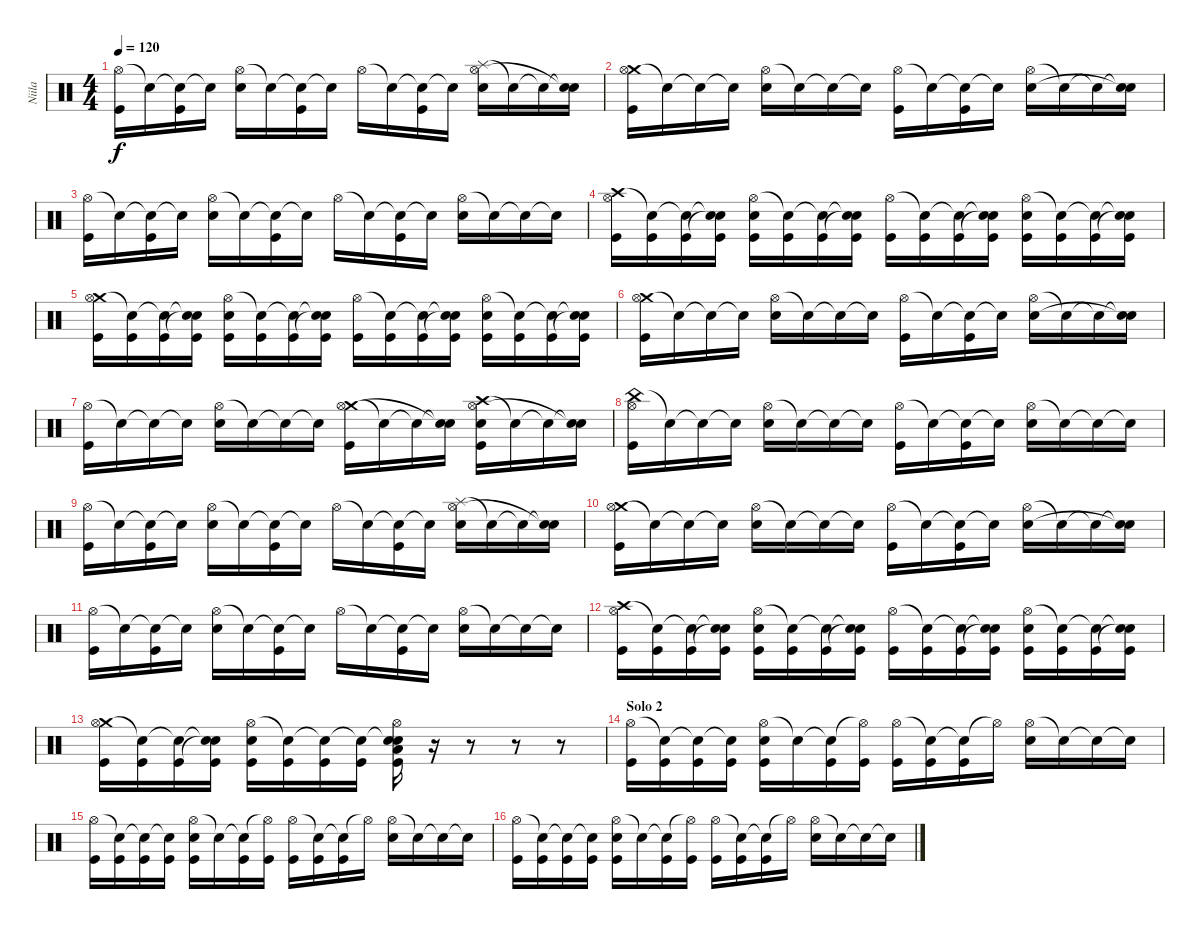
\track ("Niila" "Niila") {instrument percussion}
\staff {score}
\articulation defaults
\ts (4 4)
\tempo 120
\clef neutral
\ks c
("Hi-Hat (open)" "Kick (hit)").16{dy f} "Snare (hit)"{t}.16 ("Snare (hit)"{t} "Kick (hit)").16 "Snare (hit)"{t}.16 ("Hi-Hat (open)" "Snare (hit) 2").16 "Snare (hit)"{t}.16 ("Snare (hit)"{t} "Kick (hit)").16 "Snare (hit)"{t}.16 "Hi-Hat (open)".16 "Snare (hit)"{t}.16 ("Snare (hit)"{t} "Kick (hit)").16 "Snare (hit)"{t}.16 ("Splash (hit)" "Hi-Hat (open)" "Snare (hit) 2").16 "Snare (hit)"{t}.16 "Snare (hit)"{t}.16 ("Snare (hit)"{t} "Snare (hit)"{t}).16 |
("Crash medium (hit)" "Hi-Hat (open)" "Kick (hit)").16 "Snare (hit)"{t}.16 "Snare (hit)"{t}.16 "Snare (hit)"{t}.16 ("Hi-Hat (open)" "Snare (hit) 2").16 "Snare (hit)"{t}.16 "Snare (hit)"{t}.16 "Snare (hit)"{t}.16 ("Hi-Hat (open)" "Kick (hit)").16 "Snare (hit)"{t}.16 ("Snare (hit)"{t} "Kick (hit)").16 "Snare (hit)"{t}.16 ("Hi-Hat (open)" "Snare (hit) 2").16 "Snare (hit)"{t}.16 "Snare (hit)"{t}.16 ("Snare (hit)"{t} "Snare (hit)"{t}).16 |
("Hi-Hat (open)" "Kick (hit)").16 "Snare (hit)"{t}.16 ("Snare (hit)"{t} "Kick (hit)").16 "Snare (hit)"{t}.16 ("Hi-Hat (open)" "Snare (hit) 2").16 "Snare (hit)"{t}.16 ("Snare (hit)"{t} "Kick (hit)").16 "Snare (hit)"{t}.16 "Hi-Hat (open)".16 "Snare (hit)"{t}.16 ("Snare (hit)"{t} "Kick (hit)").16 "Snare (hit)"{t}.16 ("Hi-Hat (open)" "Snare (hit) 2").16 "Snare (hit)"{t}.16 "Snare (hit)"{t}.16 "Snare (hit)"{t}.16 |
("Crash high (hit)" "Hi-Hat (open)" "Kick (hit)").16 ("Snare (hit)"{t} "Kick (hit)").16 ("Snare (hit)"{t} "Kick (hit)").16 ("Snare (hit)"{t} "Snare (hit)"{t} "Kick (hit)").16 ("Hi-Hat (open)" "Snare (hit) 2" "Kick (hit)").16 ("Snare (hit)"{t} "Kick (hit)").16 ("Snare (hit)"{t} "Kick (hit)").16 ("Snare (hit)"{t} "Snare (hit)"{t} "Kick (hit)").16 ("Hi-Hat (open)" "Kick (hit)").16 ("Snare (hit)"{t} "Kick (hit)").16 ("Snare (hit)"{t} "Kick (hit)").16 ("Snare (hit)"{t} "Snare (hit)"{t} "Kick (hit)").16 ("Hi-Hat (open)" "Snare (hit) 2" "Kick (hit)").16 ("Snare (hit)"{t} "Kick (hit)").16 ("Snare (hit)"{t} "Kick (hit)").16 ("Snare (hit)"{t} "Snare (hit)"{t} "Kick (hit)").16 |
("Crash medium (hit)" "Hi-Hat (open)" "Kick (hit)").16 ("Snare (hit)"{t} "Kick (hit)").16 ("Snare (hit)"{t} "Kick (hit)").16 ("Snare (hit)"{t} "Snare (hit)"{t} "Kick (hit)").16 ("Hi-Hat (open)" "Snare (hit) 2" "Kick (hit)").16 ("Snare (hit)"{t} "Kick (hit)").16 ("Snare (hit)"{t} "Kick (hit)").16 ("Snare (hit)"{t} "Snare (hit)"{t} "Kick (hit)").16 ("Hi-Hat (open)" "Kick (hit)").16 ("Snare (hit)"{t} "Kick (hit)").16 ("Snare (hit)"{t} "Kick (hit)").16 ("Snare (hit)"{t} "Snare (hit)"{t} "Kick (hit)").16 ("Hi-Hat (open)" "Snare (hit) 2" "Kick (hit)").16 ("Snare (hit)"{t} "Kick (hit)").16 ("Snare (hit)"{t} "Kick (hit)").16 ("Snare (hit)"{t} "Snare (hit)"{t} "Kick (hit)").16 |
("Crash medium (hit)" "Hi-Hat (open)" "Kick (hit)").16 "Snare (hit)"{t}.16 "Snare (hit)"{t}.16 "Snare (hit)"{t}.16 ("Hi-Hat (open)" "Snare (hit) 2").16 "Snare (hit)"{t}.16 "Snare (hit)"{t}.16 "Snare (hit)"{t}.16 ("Hi-Hat (open)" "Kick (hit)").16 "Snare (hit)"{t}.16 ("Snare (hit)"{t} "Kick (hit)").16 "Snare (hit)"{t}.16 ("Hi-Hat (open)" "Snare (hit) 2").16 "Snare (hit)"{t}.16 "Snare (hit)"{t}.16 ("Snare (hit)"{t} "Snare (hit)"{t}).16 |
("Hi-Hat (open)" "Kick (hit)").16 "Snare (hit)"{t}.16 "Snare (hit)"{t}.16 "Snare (hit)"{t}.16 ("Hi-Hat (open)" "Snare (hit) 2").16 "Snare (hit)"{t}.16 "Snare (hit)"{t}.16 "Snare (hit)"{t}.16 ("Crash medium (hit)" "Hi-Hat (open)" "Kick (hit)").16 "Snare (hit)"{t}.16 "Snare (hit)"{t}.16 ("Snare (hit)"{t} "Snare (hit)"{t}).16 ("Crash high (hit)" "Hi-Hat (open)" "Snare (hit) 2" "Kick (hit)").16 "Snare (hit)"{t}.16 "Snare (hit)"{t}.16 ("Snare (hit)"{t} "Snare (hit)"{t}).16 |
("China (hit)" "Hi-Hat (open)" "Kick (hit)").16 "Snare (hit)"{t}.16 "Snare (hit)"{t}.16 "Snare (hit)"{t}.16 ("Hi-Hat (open)" "Snare (hit) 2").16 "Snare (hit)"{t}.16 "Snare (hit)"{t}.16 "Snare (hit)"{t}.16 ("Hi-Hat (open)" "Kick (hit)").16 "Snare (hit)"{t}.16 ("Snare (hit)"{t} "Kick (hit)").16 "Snare (hit)"{t}.16 ("Hi-Hat (open)" "Snare (hit) 2").16 "Snare (hit)"{t}.16 "Snare (hit)"{t}.16 "Snare (hit)"{t}.16 |
("Hi-Hat (open)" "Kick (hit)").16 "Snare (hit)"{t}.16 ("Snare (hit)"{t} "Kick (hit)").16 "Snare (hit)"{t}.16 ("Hi-Hat (open)" "Snare (hit) 2").16 "Snare (hit)"{t}.16 ("Snare (hit)"{t} "Kick (hit)").16 "Snare (hit)"{t}.16 "Hi-Hat (open)".16 "Snare (hit)"{t}.16 ("Snare (hit)"{t} "Kick (hit)").16 "Snare (hit)"{t}.16 ("Splash (hit)" "Hi-Hat (open)" "Snare (hit) 2").16 "Snare (hit)"{t}.16 "Snare (hit)"{t}.16 ("Snare (hit)"{t} "Snare (hit)"{t}).16 |
("Crash medium (hit)" "Hi-Hat (open)" "Kick (hit)").16 "Snare (hit)"{t}.16 "Snare (hit)"{t}.16 "Snare (hit)"{t}.16 ("Hi-Hat (open)" "Snare (hit) 2").16 "Snare (hit)"{t}.16 "Snare (hit)"{t}.16 "Snare (hit)"{t}.16 ("Hi-Hat (open)" "Kick (hit)").16 "Snare (hit)"{t}.16 ("Snare (hit)"{t} "Kick (hit)").16 "Snare (hit)"{t}.16 ("Hi-Hat (open)" "Snare (hit) 2").16 "Snare (hit)"{t}.16 "Snare (hit)"{t}.16 ("Snare (hit)"{t} "Snare (hit)"{t}).16 |
("Hi-Hat (open)" "Kick (hit)").16 "Snare (hit)"{t}.16 ("Snare (hit)"{t} "Kick (hit)").16 "Snare (hit)"{t}.16 ("Hi-Hat (open)" "Snare (hit) 2").16 "Snare (hit)"{t}.16 ("Snare (hit)"{t} "Kick (hit)").16 "Snare (hit)"{t}.16 "Hi-Hat (open)".16 "Snare (hit)"{t}.16 ("Snare (hit)"{t} "Kick (hit)").16 "Snare (hit)"{t}.16 ("Hi-Hat (open)" "Snare (hit) 2").16 "Snare (hit)"{t}.16 "Snare (hit)"{t}.16 "Snare (hit)"{t}.16 |
("Crash high (hit)" "Hi-Hat (open)" "Kick (hit)").16 ("Snare (hit)"{t} "Kick (hit)").16 ("Snare (hit)"{t} "Kick (hit)").16 ("Snare (hit)"{t} "Snare (hit)"{t} "Kick (hit)").16 ("Hi-Hat (open)" "Snare (hit) 2" "Kick (hit)").16 ("Snare (hit)"{t} "Kick (hit)").16 ("Snare (hit)"{t} "Kick (hit)").16 ("Snare (hit)"{t} "Snare (hit)"{t} "Kick (hit)").16 ("Hi-Hat (open)" "Kick (hit)").16 ("Snare (hit)"{t} "Kick (hit)").16 ("Snare (hit)"{t} "Kick (hit)").16 ("Snare (hit)"{t} "Snare (hit)"{t} "Kick (hit)").16 ("Hi-Hat (open)" "Snare (hit) 2" "Kick (hit)").16 ("Snare (hit)"{t} "Kick (hit)").16 ("Snare (hit)"{t} "Kick (hit)").16 ("Snare (hit)"{t} "Snare (hit)"{t} "Kick (hit)").16 |
("Crash medium (hit)" "Hi-Hat (open)" "Kick (hit)").16 ("Snare (hit)"{t} "Kick (hit)").16 ("Snare (hit)"{t} "Kick (hit)").16 ("Snare (hit)"{t} "Snare (hit)"{t} "Kick (hit)").16 ("Hi-Hat (open)" "Snare (hit) 2" "Kick (hit)").16 ("Snare (hit)"{t} "Kick (hit)").16 ("Snare (hit)"{t} "Kick (hit)").16 ("Snare (hit)"{t} "Kick (hit)").16 ("Snare (hit)"{t} "Hi-Hat (open)" "Low Tom (hit)" "Snare (hit) 2" "Kick (hit)").16 r.16 r.8 r.8 r.8 |
\section ("" "Solo 2")
("Hi-Hat (open)" "Kick (hit)").16 ("Snare (hit)"{t} "Kick (hit)").16 ("Snare (hit)"{t} "Kick (hit)").16 ("Snare (hit)"{t} "Kick (hit)").16 ("Hi-Hat (open)" "Snare (hit) 2" "Kick (hit)").16 "Snare (hit)"{t}.16 ("Snare (hit)"{t} "Kick (hit)").16 ("Hi-Hat (open)"{t} "Kick (hit)").16 ("Hi-Hat (open)" "Kick (hit)").16 ("Snare (hit)"{t} "Kick (hit)").16 ("Snare (hit)"{t} "Kick (hit)").16 "Hi-Hat (open)"{t}.16 ("Hi-Hat (open)" "Snare (hit) 2").16 "Snare (hit)"{t}.16 "Snare (hit)"{t}.16 "Snare (hit)"{t}.16 |
("Hi-Hat (open)" "Kick (hit)").16 ("Snare (hit)"{t} "Kick (hit)").16 ("Snare (hit)"{t} "Kick (hit)").16 ("Snare (hit)"{t} "Kick (hit)").16 ("Hi-Hat (open)" "Snare (hit) 2" "Kick (hit)").16 "Snare (hit)"{t}.16 ("Snare (hit)"{t} "Kick (hit)").16 ("Hi-Hat (open)"{t} "Kick (hit)").16 ("Hi-Hat (open)" "Kick (hit)").16 ("Snare (hit)"{t} "Kick (hit)").16 ("Snare (hit)"{t} "Kick (hit)").16 "Hi-Hat (open)"{t}.16 ("Hi-Hat (open)" "Snare (hit) 2").16 "Snare (hit)"{t}.16 "Snare (hit)"{t}.16 "Snare (hit)"{t}.16 |
("Hi-Hat (open)" "Kick (hit)").16 ("Snare (hit)"{t} "Kick (hit)").16 ("Snare (hit)"{t} "Kick (hit)").16 ("Snare (hit)"{t} "Kick (hit)").16 ("Hi-Hat (open)" "Snare (hit) 2" "Kick (hit)").16 "Snare (hit)"{t}.16 ("Snare (hit)"{t} "Kick (hit)").16 ("Hi-Hat (open)"{t} "Kick (hit)").16 ("Hi-Hat (open)" "Kick (hit)").16 ("Snare (hit)"{t} "Kick (hit)").16 ("Snare (hit)"{t} "Kick (hit)").16 "Hi-Hat (open)"{t}.16 ("Hi-Hat (open)" "Snare (hit) 2").16 "Snare (hit)"{t}.16 "Snare (hit)"{t}.16 "Snare (hit)"{t}.16
